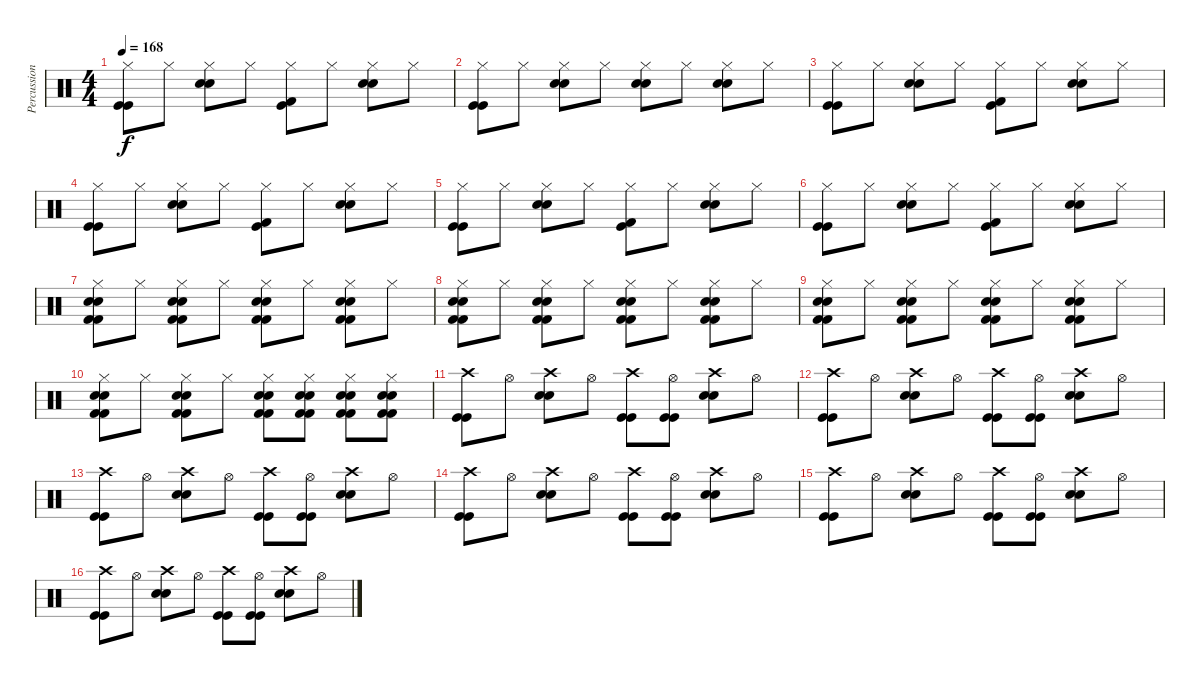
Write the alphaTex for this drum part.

\track ("Percussion" "Percussion") {instrument percussion}
\staff {score}
\articulation defaults
\ts (4 4)
\tempo 168
\clef neutral
\ks c
("Kick (hit)" "Hi-Hat (closed)" "Kick (hit)").8{dy f} "Hi-Hat (closed)".8 ("Snare (hit) 2" "Hi-Hat (closed)" "Snare (hit) 2").8 "Hi-Hat (closed)".8 ("Kick (hit)" "Hi-Hat (closed)" "Kick (hit) 2").8 "Hi-Hat (closed)".8 ("Snare (hit) 2" "Hi-Hat (closed)" "Snare (hit) 2").8 "Hi-Hat (closed)".8 |
("Kick (hit)" "Hi-Hat (closed)" "Kick (hit)").8 "Hi-Hat (closed)".8 ("Snare (hit) 2" "Hi-Hat (closed)" "Snare (hit) 2").8 "Hi-Hat (closed)".8 ("Snare (hit) 2" "Hi-Hat (closed)" "Snare (hit) 2").8 "Hi-Hat (closed)".8 ("Snare (hit) 2" "Hi-Hat (closed)" "Snare (hit) 2").8 "Hi-Hat (closed)".8 |
("Kick (hit)" "Hi-Hat (closed)" "Kick (hit)").8 "Hi-Hat (closed)".8 ("Snare (hit) 2" "Hi-Hat (closed)" "Snare (hit) 2").8 "Hi-Hat (closed)".8 ("Kick (hit)" "Hi-Hat (closed)" "Kick (hit) 2").8 "Hi-Hat (closed)".8 ("Snare (hit) 2" "Hi-Hat (closed)" "Snare (hit) 2").8 "Hi-Hat (closed)".8 |
("Kick (hit)" "Hi-Hat (closed)" "Kick (hit)").8 "Hi-Hat (closed)".8 ("Snare (hit) 2" "Hi-Hat (closed)" "Snare (hit) 2").8 "Hi-Hat (closed)".8 ("Kick (hit)" "Hi-Hat (closed)" "Kick (hit) 2").8 "Hi-Hat (closed)".8 ("Snare (hit) 2" "Hi-Hat (closed)" "Snare (hit) 2").8 "Hi-Hat (closed)".8 |
("Kick (hit)" "Hi-Hat (closed)" "Kick (hit)").8 "Hi-Hat (closed)".8 ("Snare (hit) 2" "Hi-Hat (closed)" "Snare (hit) 2").8 "Hi-Hat (closed)".8 ("Kick (hit)" "Hi-Hat (closed)" "Kick (hit) 2").8 "Hi-Hat (closed)".8 ("Snare (hit) 2" "Hi-Hat (closed)" "Snare (hit) 2").8 "Hi-Hat (closed)".8 |
("Kick (hit)" "Hi-Hat (closed)" "Kick (hit)").8 "Hi-Hat (closed)".8 ("Snare (hit) 2" "Hi-Hat (closed)" "Snare (hit) 2").8 "Hi-Hat (closed)".8 ("Kick (hit)" "Hi-Hat (closed)" "Kick (hit) 2").8 "Hi-Hat (closed)".8 ("Snare (hit) 2" "Hi-Hat (closed)" "Snare (hit) 2").8 "Hi-Hat (closed)".8 |
("Snare (hit) 2" "Kick (hit) 2" "Snare (hit) 2" "Hi-Hat (closed)" "Kick (hit) 2").8 "Hi-Hat (closed)".8 ("Snare (hit) 2" "Kick (hit) 2" "Snare (hit) 2" "Hi-Hat (closed)" "Kick (hit) 2").8 "Hi-Hat (closed)".8 ("Snare (hit) 2" "Kick (hit) 2" "Snare (hit) 2" "Hi-Hat (closed)" "Kick (hit) 2").8 "Hi-Hat (closed)".8 ("Snare (hit) 2" "Kick (hit) 2" "Snare (hit) 2" "Hi-Hat (closed)" "Kick (hit) 2").8 "Hi-Hat (closed)".8 |
("Snare (hit) 2" "Kick (hit) 2" "Snare (hit) 2" "Hi-Hat (closed)" "Kick (hit) 2").8 "Hi-Hat (closed)".8 ("Snare (hit) 2" "Kick (hit) 2" "Snare (hit) 2" "Hi-Hat (closed)" "Kick (hit) 2").8 "Hi-Hat (closed)".8 ("Snare (hit) 2" "Kick (hit) 2" "Snare (hit) 2" "Hi-Hat (closed)" "Kick (hit) 2").8 "Hi-Hat (closed)".8 ("Snare (hit) 2" "Kick (hit) 2" "Snare (hit) 2" "Hi-Hat (closed)" "Kick (hit) 2").8 "Hi-Hat (closed)".8 |
("Snare (hit) 2" "Kick (hit) 2" "Snare (hit) 2" "Hi-Hat (closed)" "Kick (hit) 2").8 "Hi-Hat (closed)".8 ("Snare (hit) 2" "Kick (hit) 2" "Snare (hit) 2" "Hi-Hat (closed)" "Kick (hit) 2").8 "Hi-Hat (closed)".8 ("Snare (hit) 2" "Kick (hit) 2" "Snare (hit) 2" "Hi-Hat (closed)" "Kick (hit) 2").8 "Hi-Hat (closed)".8 ("Snare (hit) 2" "Kick (hit) 2" "Snare (hit) 2" "Hi-Hat (closed)" "Kick (hit) 2").8 "Hi-Hat (closed)".8 |
("Snare (hit) 2" "Kick (hit) 2" "Snare (hit) 2" "Hi-Hat (closed)" "Kick (hit) 2").8 "Hi-Hat (closed)".8 ("Snare (hit) 2" "Kick (hit) 2" "Snare (hit) 2" "Hi-Hat (closed)" "Kick (hit) 2").8 "Hi-Hat (closed)".8 ("Snare (hit) 2" "Kick (hit) 2" "Snare (hit) 2" "Hi-Hat (closed)" "Kick (hit) 2").8 ("Snare (hit) 2" "Kick (hit) 2" "Snare (hit) 2" "Hi-Hat (closed)" "Kick (hit) 2").8 ("Snare (hit) 2" "Kick (hit) 2" "Snare (hit) 2" "Hi-Hat (closed)" "Kick (hit) 2").8 ("Snare (hit) 2" "Kick (hit) 2" "Snare (hit) 2" "Hi-Hat (closed)" "Kick (hit) 2").8 |
("Crash high (hit)" "Kick (hit)" "Kick (hit)").8 "Hi-Hat (open)".8 ("Crash high (hit)" "Snare (hit) 2" "Snare (hit) 2").8 "Hi-Hat (open)".8 ("Crash high (hit)" "Kick (hit)" "Kick (hit)").8 ("Hi-Hat (open)" "Kick (hit)" "Kick (hit)").8 ("Crash high (hit)" "Snare (hit) 2" "Snare (hit) 2").8 "Hi-Hat (open)".8 |
("Crash high (hit)" "Kick (hit)" "Kick (hit)").8 "Hi-Hat (open)".8 ("Crash high (hit)" "Snare (hit) 2" "Snare (hit) 2").8 "Hi-Hat (open)".8 ("Crash high (hit)" "Kick (hit)" "Kick (hit)").8 ("Hi-Hat (open)" "Kick (hit)" "Kick (hit)").8 ("Crash high (hit)" "Snare (hit) 2" "Snare (hit) 2").8 "Hi-Hat (open)".8 |
("Crash high (hit)" "Kick (hit)" "Kick (hit)").8 "Hi-Hat (open)".8 ("Crash high (hit)" "Snare (hit) 2" "Snare (hit) 2").8 "Hi-Hat (open)".8 ("Crash high (hit)" "Kick (hit)" "Kick (hit)").8 ("Hi-Hat (open)" "Kick (hit)" "Kick (hit)").8 ("Crash high (hit)" "Snare (hit) 2" "Snare (hit) 2").8 "Hi-Hat (open)".8 |
("Crash high (hit)" "Kick (hit)" "Kick (hit)").8 "Hi-Hat (open)".8 ("Crash high (hit)" "Snare (hit) 2" "Snare (hit) 2").8 "Hi-Hat (open)".8 ("Crash high (hit)" "Kick (hit)" "Kick (hit)").8 ("Hi-Hat (open)" "Kick (hit)" "Kick (hit)").8 ("Crash high (hit)" "Snare (hit) 2" "Snare (hit) 2").8 "Hi-Hat (open)".8 |
("Crash high (hit)" "Kick (hit)" "Kick (hit)").8 "Hi-Hat (open)".8 ("Crash high (hit)" "Snare (hit) 2" "Snare (hit) 2").8 "Hi-Hat (open)".8 ("Crash high (hit)" "Kick (hit)" "Kick (hit)").8 ("Hi-Hat (open)" "Kick (hit)" "Kick (hit)").8 ("Crash high (hit)" "Snare (hit) 2" "Snare (hit) 2").8 "Hi-Hat (open)".8 |
("Crash high (hit)" "Kick (hit)" "Kick (hit)").8 "Hi-Hat (open)".8 ("Crash high (hit)" "Snare (hit) 2" "Snare (hit) 2").8 "Hi-Hat (open)".8 ("Crash high (hit)" "Kick (hit)" "Kick (hit)").8 ("Hi-Hat (open)" "Kick (hit)" "Kick (hit)").8 ("Crash high (hit)" "Snare (hit) 2" "Snare (hit) 2").8 "Hi-Hat (open)".8
